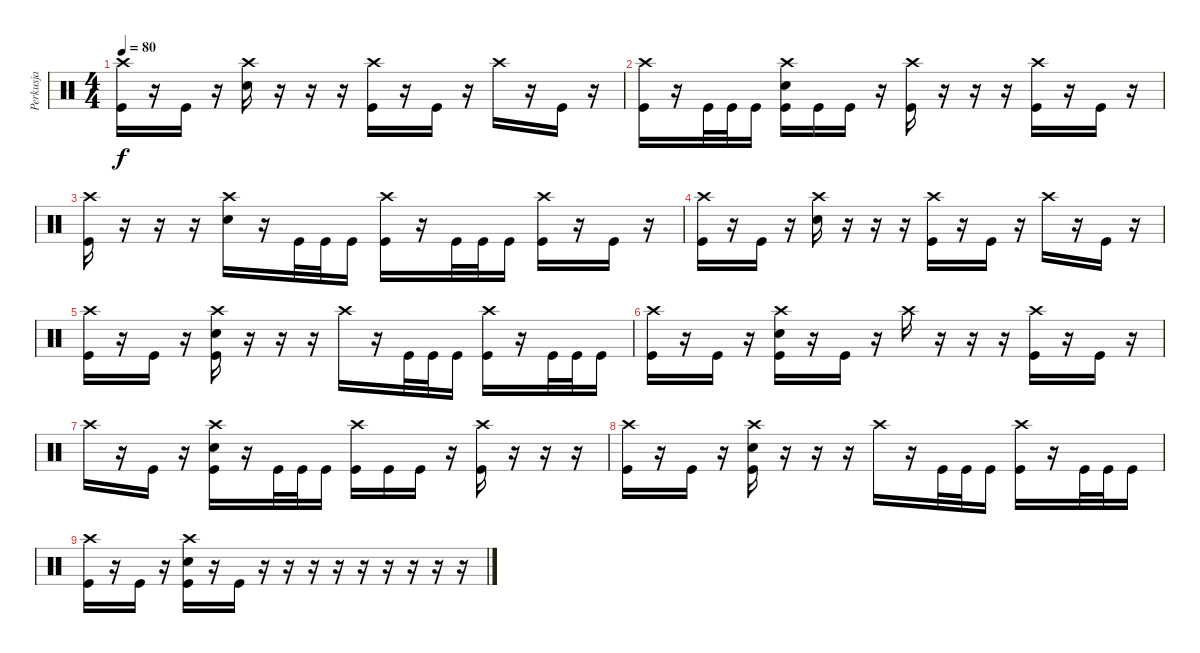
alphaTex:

\track ("Perkusja" "Perkusja") {instrument percussion}
\staff {score}
\articulation defaults
\ts (4 4)
\tempo 80
\clef neutral
\ks c
("Crash high (hit)" "Kick (hit)").16{dy f} r.16 "Kick (hit)".16 r.16 ("Crash high (hit)" "Electric Snare (hit)").16 r.16 r.16 r.16 ("Crash high (hit)" "Kick (hit)").16 r.16 "Kick (hit)".16 r.16 "Crash high (hit)".16 r.16 "Kick (hit)".16 r.16 |
("Crash high (hit)" "Kick (hit)").16 r.16 "Kick (hit)".32 "Kick (hit)".32 "Kick (hit)".16 ("Crash high (hit)" "Electric Snare (hit)" "Kick (hit)").16 "Kick (hit)".16 "Kick (hit)".16 r.16 ("Crash high (hit)" "Kick (hit)").16 r.16 r.16 r.16 ("Crash high (hit)" "Kick (hit)").16 r.16 "Kick (hit)".16 r.16 |
("Crash high (hit)" "Kick (hit)").16 r.16 r.16 r.16 ("Crash high (hit)" "Electric Snare (hit)").16 r.16 "Kick (hit)".32 "Kick (hit)".32 "Kick (hit)".16 ("Crash high (hit)" "Kick (hit)").16 r.16 "Kick (hit)".32 "Kick (hit)".32 "Kick (hit)".16 ("Crash high (hit)" "Kick (hit)").16 r.16 "Kick (hit)".16 r.16 |
("Crash high (hit)" "Kick (hit)").16 r.16 "Kick (hit)".16 r.16 ("Crash high (hit)" "Electric Snare (hit)").16 r.16 r.16 r.16 ("Crash high (hit)" "Kick (hit)").16 r.16 "Kick (hit)".16 r.16 "Crash high (hit)".16 r.16 "Kick (hit)".16 r.16 |
("Crash high (hit)" "Kick (hit)").16 r.16 "Kick (hit)".16 r.16 ("Crash high (hit)" "Electric Snare (hit)" "Kick (hit)").16 r.16 r.16 r.16 "Crash high (hit)".16 r.16 "Kick (hit)".32 "Kick (hit)".32 "Kick (hit)".16 ("Crash high (hit)" "Kick (hit)").16 r.16 "Kick (hit)".32 "Kick (hit)".32 "Kick (hit)".16 |
("Crash high (hit)" "Kick (hit)").16 r.16 "Kick (hit)".16 r.16 ("Crash high (hit)" "Electric Snare (hit)" "Kick (hit)").16 r.16 "Kick (hit)".16 r.16 "Crash high (hit)".16 r.16 r.16 r.16 ("Crash high (hit)" "Kick (hit)").16 r.16 "Kick (hit)".16 r.16 |
"Crash high (hit)".16 r.16 "Kick (hit)".16 r.16 ("Crash high (hit)" "Electric Snare (hit)" "Kick (hit)").16 r.16 "Kick (hit)".32 "Kick (hit)".32 "Kick (hit)".16 ("Crash high (hit)" "Kick (hit)").16 "Kick (hit)".16 "Kick (hit)".16 r.16 ("Crash high (hit)" "Kick (hit)").16 r.16 r.16 r.16 |
("Crash high (hit)" "Kick (hit)").16 r.16 "Kick (hit)".16 r.16 ("Crash high (hit)" "Electric Snare (hit)" "Kick (hit)").16 r.16 r.16 r.16 "Crash high (hit)".16 r.16 "Kick (hit)".32 "Kick (hit)".32 "Kick (hit)".16 ("Crash high (hit)" "Kick (hit)").16 r.16 "Kick (hit)".32 "Kick (hit)".32 "Kick (hit)".16 |
("Crash high (hit)" "Kick (hit)").16 r.16 "Kick (hit)".16 r.16 ("Crash high (hit)" "Electric Snare (hit)" "Kick (hit)").16 r.16 "Kick (hit)".16 r.16 r.16 r.16 r.16 r.16 r.16 r.16 r.16 r.16
